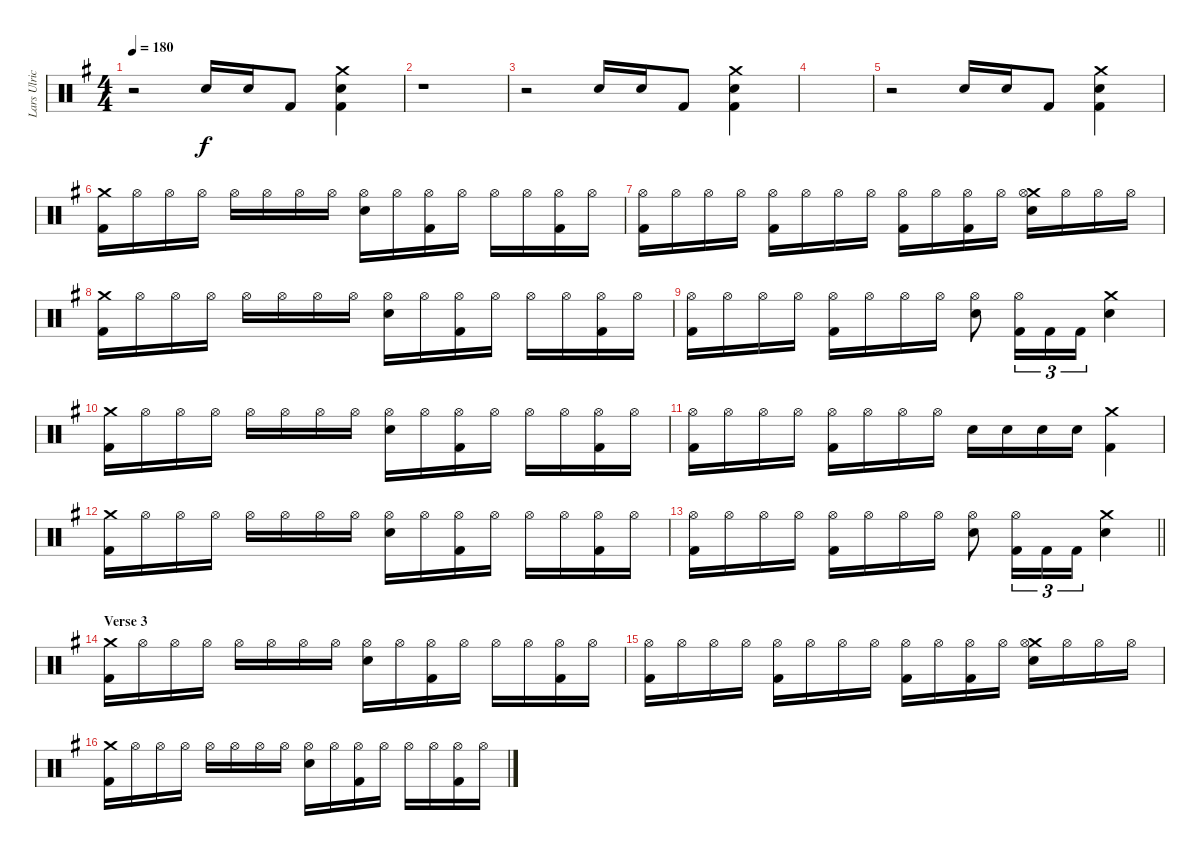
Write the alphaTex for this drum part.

\track ("Lars Ulrich" "Lars Ulric") {instrument percussion}
\staff {score}
\articulation defaults
\ts (4 4)
\tempo 180
\clef neutral
\ks eminor
r.2{dy f} "Snare (hit) 2".16 "Snare (hit) 2".16 "Kick (hit) 2".8 ("Crash medium (hit)" "Snare (hit) 2" "Kick (hit) 2").4 |
r.1 |
r.2 "Snare (hit) 2".16 "Snare (hit) 2".16 "Kick (hit) 2".8 ("Crash medium (hit)" "Snare (hit) 2" "Kick (hit) 2").4 |
|
r.2 "Snare (hit) 2".16 "Snare (hit) 2".16 "Kick (hit) 2".8 ("Crash medium (hit)" "Snare (hit) 2" "Kick (hit) 2").4 |
("Crash medium (hit)" "Kick (hit) 2").16 "Hi-Hat (open)".16 "Hi-Hat (open)".16 "Hi-Hat (open)".16 "Hi-Hat (open)".16 "Hi-Hat (open)".16 "Hi-Hat (open)".16 "Hi-Hat (open)".16 ("Hi-Hat (open)" "Snare (hit) 2").16 "Hi-Hat (open)".16 ("Hi-Hat (open)" "Kick (hit) 2").16 "Hi-Hat (open)".16 "Hi-Hat (open)".16 "Hi-Hat (open)".16 ("Hi-Hat (open)" "Kick (hit) 2").16 "Hi-Hat (open)".16 |
("Hi-Hat (open)" "Kick (hit) 2").16 "Hi-Hat (open)".16 "Hi-Hat (open)".16 "Hi-Hat (open)".16 ("Hi-Hat (open)" "Kick (hit) 2").16 "Hi-Hat (open)".16 "Hi-Hat (open)".16 "Hi-Hat (open)".16 ("Hi-Hat (open)" "Kick (hit) 2").16 "Hi-Hat (open)".16 ("Hi-Hat (open)" "Kick (hit) 2").16 "Hi-Hat (open)".16 ("Crash medium (hit)" "Hi-Hat (open)" "Snare (hit) 2").16 "Hi-Hat (open)".16 "Hi-Hat (open)".16 "Hi-Hat (open)".16 |
("Crash medium (hit)" "Kick (hit) 2").16 "Hi-Hat (open)".16 "Hi-Hat (open)".16 "Hi-Hat (open)".16 "Hi-Hat (open)".16 "Hi-Hat (open)".16 "Hi-Hat (open)".16 "Hi-Hat (open)".16 ("Hi-Hat (open)" "Snare (hit) 2").16 "Hi-Hat (open)".16 ("Hi-Hat (open)" "Kick (hit) 2").16 "Hi-Hat (open)".16 "Hi-Hat (open)".16 "Hi-Hat (open)".16 ("Hi-Hat (open)" "Kick (hit) 2").16 "Hi-Hat (open)".16 |
("Hi-Hat (open)" "Kick (hit) 2").16 "Hi-Hat (open)".16 "Hi-Hat (open)".16 "Hi-Hat (open)".16 ("Hi-Hat (open)" "Kick (hit) 2").16 "Hi-Hat (open)".16 "Hi-Hat (open)".16 "Hi-Hat (open)".16 ("Hi-Hat (open)" "Snare (hit) 2").8 ("Hi-Hat (open)" "Kick (hit) 2").16{tu (3 2)} "Kick (hit) 2".16{tu (3 2)} "Kick (hit) 2".16{tu (3 2)} ("Crash medium (hit)" "Snare (hit) 2").4 |
("Crash medium (hit)" "Kick (hit) 2").16 "Hi-Hat (open)".16 "Hi-Hat (open)".16 "Hi-Hat (open)".16 "Hi-Hat (open)".16 "Hi-Hat (open)".16 "Hi-Hat (open)".16 "Hi-Hat (open)".16 ("Hi-Hat (open)" "Snare (hit) 2").16 "Hi-Hat (open)".16 ("Hi-Hat (open)" "Kick (hit) 2").16 "Hi-Hat (open)".16 "Hi-Hat (open)".16 "Hi-Hat (open)".16 ("Hi-Hat (open)" "Kick (hit) 2").16 "Hi-Hat (open)".16 |
("Hi-Hat (open)" "Kick (hit) 2").16 "Hi-Hat (open)".16 "Hi-Hat (open)".16 "Hi-Hat (open)".16 ("Hi-Hat (open)" "Kick (hit) 2").16 "Hi-Hat (open)".16 "Hi-Hat (open)".16 "Hi-Hat (open)".16 "Snare (hit) 2".16 "Snare (hit) 2".16 "Snare (hit) 2".16 "Snare (hit) 2".16 ("Crash medium (hit)" "Kick (hit) 2").4 |
("Crash medium (hit)" "Kick (hit) 2").16 "Hi-Hat (open)".16 "Hi-Hat (open)".16 "Hi-Hat (open)".16 "Hi-Hat (open)".16 "Hi-Hat (open)".16 "Hi-Hat (open)".16 "Hi-Hat (open)".16 ("Hi-Hat (open)" "Snare (hit) 2").16 "Hi-Hat (open)".16 ("Hi-Hat (open)" "Kick (hit) 2").16 "Hi-Hat (open)".16 "Hi-Hat (open)".16 "Hi-Hat (open)".16 ("Hi-Hat (open)" "Kick (hit) 2").16 "Hi-Hat (open)".16 |
\barLineRight lightlight
("Hi-Hat (open)" "Kick (hit) 2").16 "Hi-Hat (open)".16 "Hi-Hat (open)".16 "Hi-Hat (open)".16 ("Hi-Hat (open)" "Kick (hit) 2").16 "Hi-Hat (open)".16 "Hi-Hat (open)".16 "Hi-Hat (open)".16 ("Hi-Hat (open)" "Snare (hit) 2").8 ("Hi-Hat (open)" "Kick (hit) 2").16{tu (3 2)} "Kick (hit) 2".16{tu (3 2)} "Kick (hit) 2".16{tu (3 2)} ("Crash medium (hit)" "Snare (hit) 2").4 |
\section ("" "Verse 3")
("Crash medium (hit)" "Kick (hit) 2").16 "Hi-Hat (open)".16 "Hi-Hat (open)".16 "Hi-Hat (open)".16 "Hi-Hat (open)".16 "Hi-Hat (open)".16 "Hi-Hat (open)".16 "Hi-Hat (open)".16 ("Hi-Hat (open)" "Snare (hit) 2").16 "Hi-Hat (open)".16 ("Hi-Hat (open)" "Kick (hit) 2").16 "Hi-Hat (open)".16 "Hi-Hat (open)".16 "Hi-Hat (open)".16 ("Hi-Hat (open)" "Kick (hit) 2").16 "Hi-Hat (open)".16 |
("Hi-Hat (open)" "Kick (hit) 2").16 "Hi-Hat (open)".16 "Hi-Hat (open)".16 "Hi-Hat (open)".16 ("Hi-Hat (open)" "Kick (hit) 2").16 "Hi-Hat (open)".16 "Hi-Hat (open)".16 "Hi-Hat (open)".16 ("Hi-Hat (open)" "Kick (hit) 2").16 "Hi-Hat (open)".16 ("Hi-Hat (open)" "Kick (hit) 2").16 "Hi-Hat (open)".16 ("Crash medium (hit)" "Hi-Hat (open)" "Snare (hit) 2").16 "Hi-Hat (open)".16 "Hi-Hat (open)".16 "Hi-Hat (open)".16 |
("Crash medium (hit)" "Kick (hit) 2").16 "Hi-Hat (open)".16 "Hi-Hat (open)".16 "Hi-Hat (open)".16 "Hi-Hat (open)".16 "Hi-Hat (open)".16 "Hi-Hat (open)".16 "Hi-Hat (open)".16 ("Hi-Hat (open)" "Snare (hit) 2").16 "Hi-Hat (open)".16 ("Hi-Hat (open)" "Kick (hit) 2").16 "Hi-Hat (open)".16 "Hi-Hat (open)".16 "Hi-Hat (open)".16 ("Hi-Hat (open)" "Kick (hit) 2").16 "Hi-Hat (open)".16
